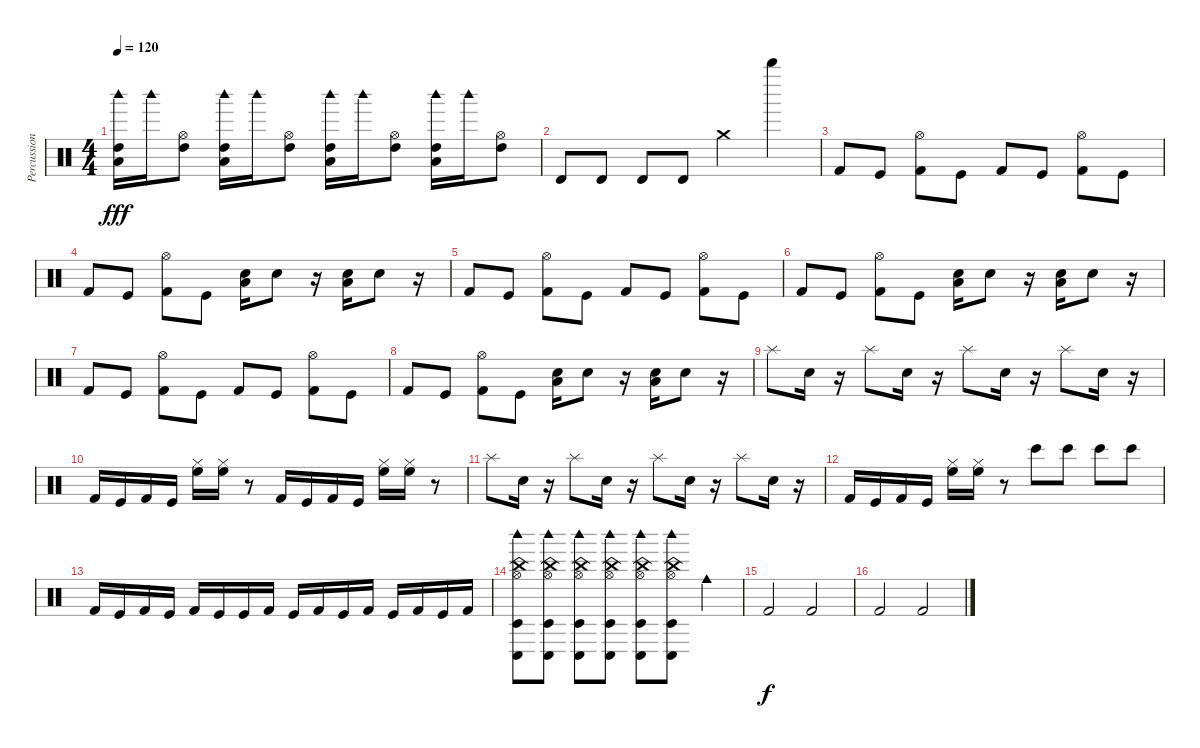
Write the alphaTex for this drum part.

\track ("Percussion" "Percussion") {instrument percussion}
\staff {score}
\articulation defaults
\ts (4 4)
\tempo 120
\clef neutral
\ks c
("Woodblock high (hit)" "High Tom (hit)" "Low Floor Tom (hit)").16{dy fff} "Woodblock high (hit)".16 ("Hi-Hat (open)" "High Tom (hit)").8 ("Woodblock high (hit)" "High Tom (hit)" "Low Floor Tom (hit)").16 "Woodblock high (hit)".16 ("Hi-Hat (open)" "High Tom (hit)").8 ("Woodblock high (hit)" "High Tom (hit)" "Low Floor Tom (hit)").16 "Woodblock high (hit)".16 ("Hi-Hat (open)" "High Tom (hit)").8 ("Woodblock high (hit)" "High Tom (hit)" "Low Floor Tom (hit)").16 "Woodblock high (hit)".16 ("Hi-Hat (open)" "High Tom (hit)").8 |
"Timbale high (hit)".8 "Timbale high (hit)".8 "Timbale high (hit)".8 "Timbale high (hit)".8 "Crash medium (hit)".4 "Whistle high (hit)".4 |
"Kick (hit) 2".8 "Kick (hit)".8 ("Hi-Hat (open)" "Kick (hit) 2").8 "Kick (hit)".8 "Kick (hit) 2".8 "Kick (hit)".8 ("Hi-Hat (open)" "Kick (hit) 2").8 "Kick (hit)".8 |
"Kick (hit) 2".8 "Kick (hit)".8 ("Hi-Hat (open)" "Kick (hit) 2").8 "Kick (hit)".8 ("Low Tom (hit)" "Snare (hit) 2").16 "Snare (hit) 2".8 r.16 ("Low Tom (hit)" "Snare (hit) 2").16 "Snare (hit) 2".8 r.16 |
"Kick (hit) 2".8 "Kick (hit)".8 ("Hi-Hat (open)" "Kick (hit) 2").8 "Kick (hit)".8 "Kick (hit) 2".8 "Kick (hit)".8 ("Hi-Hat (open)" "Kick (hit) 2").8 "Kick (hit)".8 |
"Kick (hit) 2".8 "Kick (hit)".8 ("Hi-Hat (open)" "Kick (hit) 2").8 "Kick (hit)".8 ("Low Tom (hit)" "Snare (hit) 2").16 "Snare (hit) 2".8 r.16 ("Low Tom (hit)" "Snare (hit) 2").16 "Snare (hit) 2".8 r.16 |
"Kick (hit) 2".8 "Kick (hit)".8 ("Hi-Hat (open)" "Kick (hit) 2").8 "Kick (hit)".8 "Kick (hit) 2".8 "Kick (hit)".8 ("Hi-Hat (open)" "Kick (hit) 2").8 "Kick (hit)".8 |
"Kick (hit) 2".8 "Kick (hit)".8 ("Hi-Hat (open)" "Kick (hit) 2").8 "Kick (hit)".8 ("Low Tom (hit)" "Snare (hit) 2").16 "Snare (hit) 2".8 r.16 ("Low Tom (hit)" "Snare (hit) 2").16 "Snare (hit) 2".8 r.16 |
"Splash (hit)".8 "Electric Snare (hit)".16 r.16 "Splash (hit)".8 "Electric Snare (hit)".16 r.16 "Splash (hit)".8 "Electric Snare (hit)".16 r.16 "Splash (hit)".8 "Electric Snare (hit)".16 r.16 |
"Kick (hit) 2".16 "Kick (hit)".16 "Kick (hit) 2".16 "Kick (hit)".16 ("Hi-Hat (closed)" "High Floor Tom (hit)").16 ("Hi-Hat (closed)" "High Floor Tom (hit)").16 r.8 "Kick (hit) 2".16 "Kick (hit)".16 "Kick (hit) 2".16 "Kick (hit)".16 ("Hi-Hat (closed)" "High Floor Tom (hit)").16 ("Hi-Hat (closed)" "High Floor Tom (hit)").16 r.8 |
"Splash (hit)".8 "Electric Snare (hit)".16 r.16 "Splash (hit)".8 "Electric Snare (hit)".16 r.16 "Splash (hit)".8 "Electric Snare (hit)".16 r.16 "Splash (hit)".8 "Electric Snare (hit)".16 r.16 |
"Kick (hit) 2".16 "Kick (hit)".16 "Kick (hit) 2".16 "Kick (hit)".16 ("Hi-Hat (closed)" "High Floor Tom (hit)").16 ("Hi-Hat (closed)" "High Floor Tom (hit)").16 r.8 "Bongo High (hit)".8 "Bongo High (hit)".8 "Bongo High (hit)".8 "Bongo High (hit)".8 |
"Kick (hit) 2".16 "Kick (hit)".16 "Kick (hit) 2".16 "Kick (hit)".16 "Kick (hit) 2".16 "Kick (hit)".16 "Kick (hit)".16 "Kick (hit) 2".16 "Kick (hit)".16 "Kick (hit) 2".16 "Kick (hit)".16 "Kick (hit) 2".16 "Kick (hit)".16 "Kick (hit) 2".16 "Kick (hit)".16 "Kick (hit) 2".16 |
("China (hit)" "Timbale low (hit)" "Woodblock high (hit)" "Hi-Hat (open)" "Conga low (hit)").8 ("China (hit)" "Timbale low (hit)" "Woodblock high (hit)" "Hi-Hat (open)" "Conga low (hit)").8 ("China (hit)" "Timbale low (hit)" "Woodblock high (hit)" "Hi-Hat (open)" "Conga low (hit)").8 ("China (hit)" "Timbale low (hit)" "Woodblock high (hit)" "Hi-Hat (open)" "Conga low (hit)").8 ("China (hit)" "Timbale low (hit)" "Woodblock high (hit)" "Hi-Hat (open)" "Conga low (hit)").8 ("China (hit)" "Timbale low (hit)" "Woodblock high (hit)" "Hi-Hat (open)" "Conga low (hit)").8 "Cowbell medium (hit)".4 |
"Kick (hit) 2".2{dy f} "Kick (hit) 2".2 |
"Kick (hit) 2".2 "Kick (hit) 2".2
